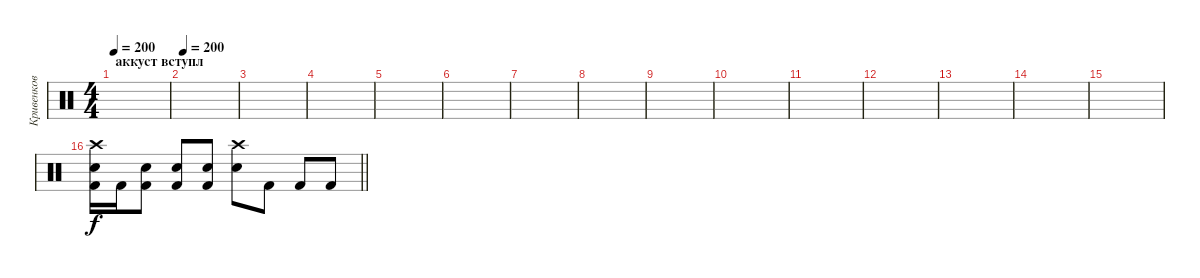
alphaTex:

\track ("Кривенков" "Кривенков") {instrument percussion}
\staff {score}
\articulation defaults
\ts (4 4)
\section ("" "аккуст вступл")
\tempo 200
\clef neutral
\ks c
|
\tempo 200
|
|
|
|
|
|
|
|
|
|
|
|
|
|
\barLineRight lightlight
("Crash high (hit)" "Electric Snare (hit)" "Kick (hit) 2").16 "Kick (hit) 2".16 ("Electric Snare (hit)" "Kick (hit) 2").8 ("Electric Snare (hit)" "Kick (hit) 2").8 ("Electric Snare (hit)" "Kick (hit) 2").8 ("Crash high (hit)" "Electric Snare (hit)").8 "Kick (hit) 2".8 "Kick (hit) 2".8 "Kick (hit) 2".8
